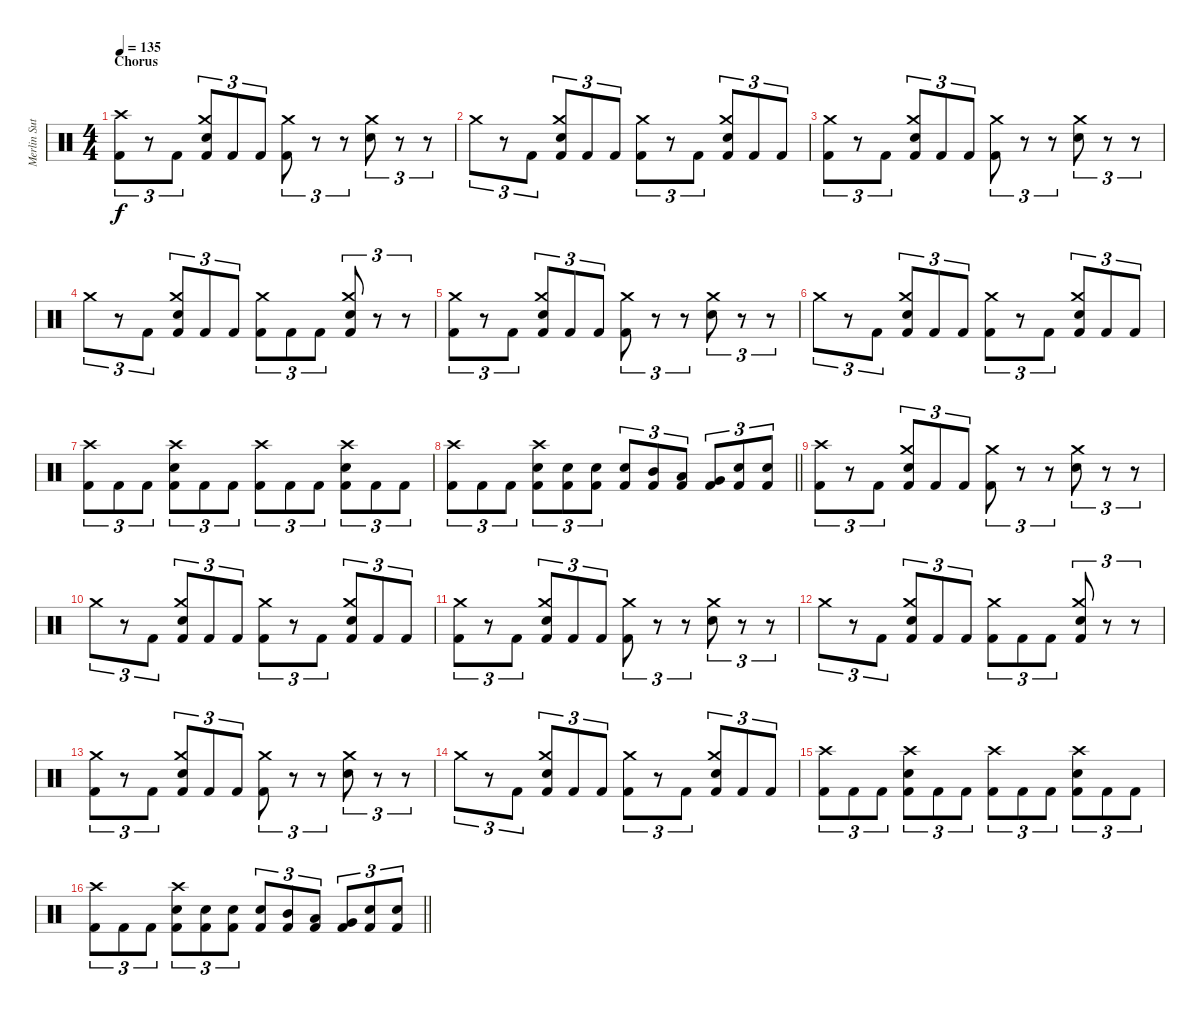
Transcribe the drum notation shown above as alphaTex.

\track ("Merlin Sutter" "Merlin Sut") {instrument percussion}
\staff {score}
\articulation defaults
\ts (4 4)
\section ("" "Chorus")
\tempo 135
\clef neutral
\ks c
("Crash high (hit)" "Kick (hit) 2").8{tu (3 2) dy f} r.8{tu (3 2)} "Kick (hit) 2".8{tu (3 2)} ("Crash medium (hit)" "Snare (hit) 2" "Kick (hit) 2").8{tu (3 2)} "Kick (hit) 2".8{tu (3 2)} "Kick (hit) 2".8{tu (3 2)} ("Crash medium (hit)" "Kick (hit) 2").8{tu (3 2)} r.8{tu (3 2)} r.8{tu (3 2)} ("Crash medium (hit)" "Snare (hit) 2").8{tu (3 2)} r.8{tu (3 2)} r.8{tu (3 2)} |
"Crash medium (hit)".8{tu (3 2)} r.8{tu (3 2)} "Kick (hit) 2".8{tu (3 2)} ("Crash medium (hit)" "Snare (hit) 2" "Kick (hit) 2").8{tu (3 2)} "Kick (hit) 2".8{tu (3 2)} "Kick (hit) 2".8{tu (3 2)} ("Crash medium (hit)" "Kick (hit) 2").8{tu (3 2)} r.8{tu (3 2)} "Kick (hit) 2".8{tu (3 2)} ("Crash medium (hit)" "Snare (hit) 2" "Kick (hit) 2").8{tu (3 2)} "Kick (hit) 2".8{tu (3 2)} "Kick (hit) 2".8{tu (3 2)} |
("Crash medium (hit)" "Kick (hit) 2").8{tu (3 2)} r.8{tu (3 2)} "Kick (hit) 2".8{tu (3 2)} ("Crash medium (hit)" "Snare (hit) 2" "Kick (hit) 2").8{tu (3 2)} "Kick (hit) 2".8{tu (3 2)} "Kick (hit) 2".8{tu (3 2)} ("Crash medium (hit)" "Kick (hit) 2").8{tu (3 2)} r.8{tu (3 2)} r.8{tu (3 2)} ("Crash medium (hit)" "Snare (hit) 2").8{tu (3 2)} r.8{tu (3 2)} r.8{tu (3 2)} |
"Crash medium (hit)".8{tu (3 2)} r.8{tu (3 2)} "Kick (hit) 2".8{tu (3 2)} ("Crash medium (hit)" "Snare (hit) 2" "Kick (hit) 2").8{tu (3 2)} "Kick (hit) 2".8{tu (3 2)} "Kick (hit) 2".8{tu (3 2)} ("Crash medium (hit)" "Kick (hit) 2").8{tu (3 2)} "Kick (hit) 2".8{tu (3 2)} "Kick (hit) 2".8{tu (3 2)} ("Crash medium (hit)" "Snare (hit) 2" "Kick (hit) 2").8{tu (3 2)} r.8{tu (3 2)} r.8{tu (3 2)} |
("Crash medium (hit)" "Kick (hit) 2").8{tu (3 2)} r.8{tu (3 2)} "Kick (hit) 2".8{tu (3 2)} ("Crash medium (hit)" "Snare (hit) 2" "Kick (hit) 2").8{tu (3 2)} "Kick (hit) 2".8{tu (3 2)} "Kick (hit) 2".8{tu (3 2)} ("Crash medium (hit)" "Kick (hit) 2").8{tu (3 2)} r.8{tu (3 2)} r.8{tu (3 2)} ("Crash medium (hit)" "Snare (hit) 2").8{tu (3 2)} r.8{tu (3 2)} r.8{tu (3 2)} |
"Crash medium (hit)".8{tu (3 2)} r.8{tu (3 2)} "Kick (hit) 2".8{tu (3 2)} ("Crash medium (hit)" "Snare (hit) 2" "Kick (hit) 2").8{tu (3 2)} "Kick (hit) 2".8{tu (3 2)} "Kick (hit) 2".8{tu (3 2)} ("Crash medium (hit)" "Kick (hit) 2").8{tu (3 2)} r.8{tu (3 2)} "Kick (hit) 2".8{tu (3 2)} ("Crash medium (hit)" "Snare (hit) 2" "Kick (hit) 2").8{tu (3 2)} "Kick (hit) 2".8{tu (3 2)} "Kick (hit) 2".8{tu (3 2)} |
("Crash high (hit)" "Kick (hit) 2").8{tu (3 2)} "Kick (hit) 2".8{tu (3 2)} "Kick (hit) 2".8{tu (3 2)} ("Crash high (hit)" "Snare (hit) 2" "Kick (hit) 2").8{tu (3 2)} "Kick (hit) 2".8{tu (3 2)} "Kick (hit) 2".8{tu (3 2)} ("Crash high (hit)" "Kick (hit) 2").8{tu (3 2)} "Kick (hit) 2".8{tu (3 2)} "Kick (hit) 2".8{tu (3 2)} ("Crash high (hit)" "Snare (hit) 2" "Kick (hit) 2").8{tu (3 2)} "Kick (hit) 2".8{tu (3 2)} "Kick (hit) 2".8{tu (3 2)} |
\barLineRight lightlight
("Crash high (hit)" "Kick (hit) 2").8{tu (3 2)} "Kick (hit) 2".8{tu (3 2)} "Kick (hit) 2".8{tu (3 2)} ("Crash high (hit)" "Snare (hit) 2" "Kick (hit) 2").8{tu (3 2)} ("Snare (hit) 2" "Kick (hit) 2").8{tu (3 2)} ("Snare (hit) 2" "Kick (hit) 2").8{tu (3 2)} ("Snare (hit) 2" "Kick (hit) 2").8{tu (3 2)} ("Mid Tom (hit)" "Kick (hit) 2").8{tu (3 2)} ("Low Tom (hit)" "Kick (hit) 2").8{tu (3 2)} ("Very Low Tom (hit)" "Kick (hit) 2").8{tu (3 2)} ("Snare (hit) 2" "Kick (hit) 2").8{tu (3 2)} ("Snare (hit) 2" "Kick (hit) 2").8{tu (3 2)} |
("Crash high (hit)" "Kick (hit) 2").8{tu (3 2)} r.8{tu (3 2)} "Kick (hit) 2".8{tu (3 2)} ("Crash medium (hit)" "Snare (hit) 2" "Kick (hit) 2").8{tu (3 2)} "Kick (hit) 2".8{tu (3 2)} "Kick (hit) 2".8{tu (3 2)} ("Crash medium (hit)" "Kick (hit) 2").8{tu (3 2)} r.8{tu (3 2)} r.8{tu (3 2)} ("Crash medium (hit)" "Snare (hit) 2").8{tu (3 2)} r.8{tu (3 2)} r.8{tu (3 2)} |
"Crash medium (hit)".8{tu (3 2)} r.8{tu (3 2)} "Kick (hit) 2".8{tu (3 2)} ("Crash medium (hit)" "Snare (hit) 2" "Kick (hit) 2").8{tu (3 2)} "Kick (hit) 2".8{tu (3 2)} "Kick (hit) 2".8{tu (3 2)} ("Crash medium (hit)" "Kick (hit) 2").8{tu (3 2)} r.8{tu (3 2)} "Kick (hit) 2".8{tu (3 2)} ("Crash medium (hit)" "Snare (hit) 2" "Kick (hit) 2").8{tu (3 2)} "Kick (hit) 2".8{tu (3 2)} "Kick (hit) 2".8{tu (3 2)} |
("Crash medium (hit)" "Kick (hit) 2").8{tu (3 2)} r.8{tu (3 2)} "Kick (hit) 2".8{tu (3 2)} ("Crash medium (hit)" "Snare (hit) 2" "Kick (hit) 2").8{tu (3 2)} "Kick (hit) 2".8{tu (3 2)} "Kick (hit) 2".8{tu (3 2)} ("Crash medium (hit)" "Kick (hit) 2").8{tu (3 2)} r.8{tu (3 2)} r.8{tu (3 2)} ("Crash medium (hit)" "Snare (hit) 2").8{tu (3 2)} r.8{tu (3 2)} r.8{tu (3 2)} |
"Crash medium (hit)".8{tu (3 2)} r.8{tu (3 2)} "Kick (hit) 2".8{tu (3 2)} ("Crash medium (hit)" "Snare (hit) 2" "Kick (hit) 2").8{tu (3 2)} "Kick (hit) 2".8{tu (3 2)} "Kick (hit) 2".8{tu (3 2)} ("Crash medium (hit)" "Kick (hit) 2").8{tu (3 2)} "Kick (hit) 2".8{tu (3 2)} "Kick (hit) 2".8{tu (3 2)} ("Crash medium (hit)" "Snare (hit) 2" "Kick (hit) 2").8{tu (3 2)} r.8{tu (3 2)} r.8{tu (3 2)} |
("Crash medium (hit)" "Kick (hit) 2").8{tu (3 2)} r.8{tu (3 2)} "Kick (hit) 2".8{tu (3 2)} ("Crash medium (hit)" "Snare (hit) 2" "Kick (hit) 2").8{tu (3 2)} "Kick (hit) 2".8{tu (3 2)} "Kick (hit) 2".8{tu (3 2)} ("Crash medium (hit)" "Kick (hit) 2").8{tu (3 2)} r.8{tu (3 2)} r.8{tu (3 2)} ("Crash medium (hit)" "Snare (hit) 2").8{tu (3 2)} r.8{tu (3 2)} r.8{tu (3 2)} |
"Crash medium (hit)".8{tu (3 2)} r.8{tu (3 2)} "Kick (hit) 2".8{tu (3 2)} ("Crash medium (hit)" "Snare (hit) 2" "Kick (hit) 2").8{tu (3 2)} "Kick (hit) 2".8{tu (3 2)} "Kick (hit) 2".8{tu (3 2)} ("Crash medium (hit)" "Kick (hit) 2").8{tu (3 2)} r.8{tu (3 2)} "Kick (hit) 2".8{tu (3 2)} ("Crash medium (hit)" "Snare (hit) 2" "Kick (hit) 2").8{tu (3 2)} "Kick (hit) 2".8{tu (3 2)} "Kick (hit) 2".8{tu (3 2)} |
("Crash high (hit)" "Kick (hit) 2").8{tu (3 2)} "Kick (hit) 2".8{tu (3 2)} "Kick (hit) 2".8{tu (3 2)} ("Crash high (hit)" "Snare (hit) 2" "Kick (hit) 2").8{tu (3 2)} "Kick (hit) 2".8{tu (3 2)} "Kick (hit) 2".8{tu (3 2)} ("Crash high (hit)" "Kick (hit) 2").8{tu (3 2)} "Kick (hit) 2".8{tu (3 2)} "Kick (hit) 2".8{tu (3 2)} ("Crash high (hit)" "Snare (hit) 2" "Kick (hit) 2").8{tu (3 2)} "Kick (hit) 2".8{tu (3 2)} "Kick (hit) 2".8{tu (3 2)} |
\barLineRight lightlight
("Crash high (hit)" "Kick (hit) 2").8{tu (3 2)} "Kick (hit) 2".8{tu (3 2)} "Kick (hit) 2".8{tu (3 2)} ("Crash high (hit)" "Snare (hit) 2" "Kick (hit) 2").8{tu (3 2)} ("Snare (hit) 2" "Kick (hit) 2").8{tu (3 2)} ("Snare (hit) 2" "Kick (hit) 2").8{tu (3 2)} ("Snare (hit) 2" "Kick (hit) 2").8{tu (3 2)} ("Mid Tom (hit)" "Kick (hit) 2").8{tu (3 2)} ("Low Tom (hit)" "Kick (hit) 2").8{tu (3 2)} ("Very Low Tom (hit)" "Kick (hit) 2").8{tu (3 2)} ("Snare (hit) 2" "Kick (hit) 2").8{tu (3 2)} ("Snare (hit) 2" "Kick (hit) 2").8{tu (3 2)}
